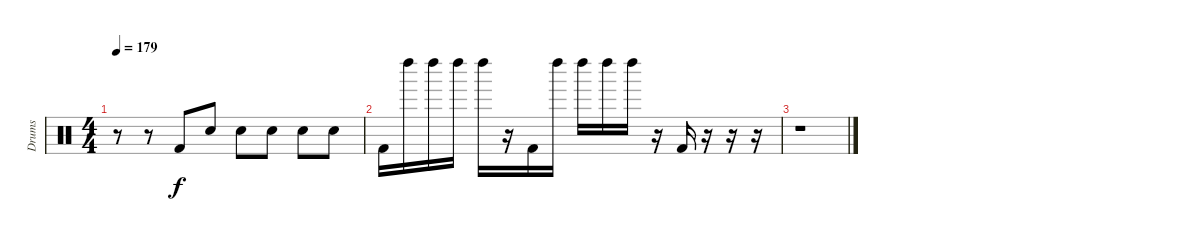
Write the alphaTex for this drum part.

\track ("Drums" "Drums") {instrument percussion}
\staff {score}
\articulation defaults
\ts (4 4)
\tempo 179
\clef neutral
\ks c
r.8{dy f} r.8 "Kick (hit) 2".8 "Snare (hit) 2".8 "Snare (hit) 2".8 "Snare (hit) 2".8 "Snare (hit) 2".8 "Snare (hit) 2".8 |
"Kick (hit) 2".16 "Left Maraca (hit)".16 "Left Maraca (hit)".16 "Left Maraca (hit)".16 "Left Maraca (hit)".16 r.16 "Kick (hit) 2".16 "Left Maraca (hit)".16 "Left Maraca (hit)".16 "Left Maraca (hit)".16 "Left Maraca (hit)".16 r.16 "Kick (hit) 2".16 r.16 r.16 r.16 |
r.1
